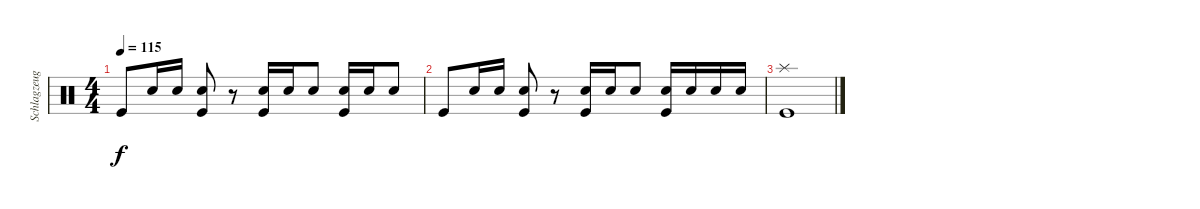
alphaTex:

\track ("Schlagzeug" "Schlagzeug") {instrument percussion}
\staff {score}
\articulation defaults
\ts (4 4)
\tempo 115
\clef neutral
\ks c "Kick (hit)".8{dy f} "Snare (hit) 2".16 "Snare (hit) 2".16
("Kick (hit)" "Snare (hit) 2").8 r.8 ("Kick (hit)" "Snare (hit) 2").16 "Snare (hit) 2".16 "Snare (hit) 2".8 ("Kick (hit)" "Snare (hit) 2").16 "Snare (hit) 2".16 "Snare (hit) 2".8 |
"Kick (hit)".8 "Snare (hit) 2".16 "Snare (hit) 2".16 ("Kick (hit)" "Snare (hit) 2").8 r.8 ("Kick (hit)" "Snare (hit) 2").16 "Snare (hit) 2".16 "Snare (hit) 2".8 ("Kick (hit)" "Snare (hit) 2").16 "Snare (hit) 2".16 "Snare (hit) 2".16 "Snare (hit) 2".16 |
("Kick (hit)" "Splash (hit)").1
